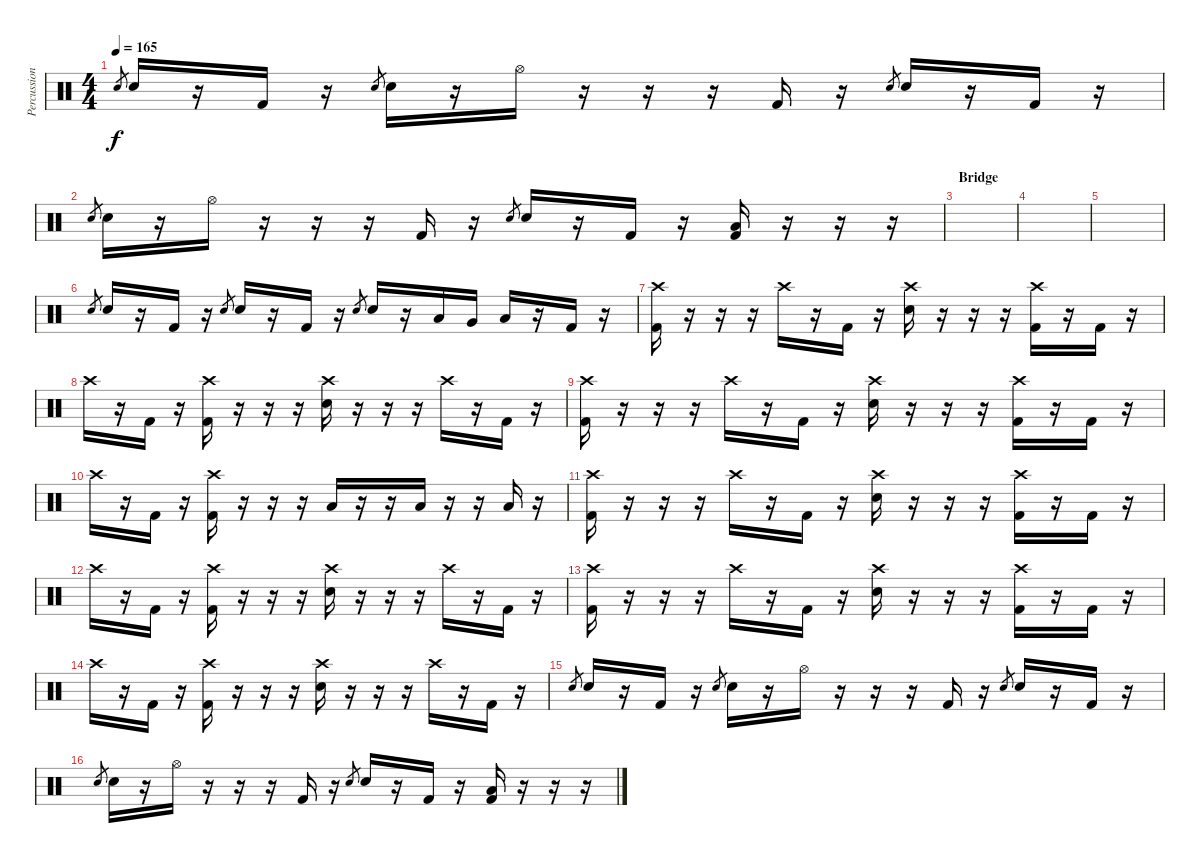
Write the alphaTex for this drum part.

\track ("Percussion" "Percussion") {instrument percussion}
\staff {score}
\articulation defaults
\ts (4 4)
\tempo 165
\clef neutral
\ks c "Snare (hit) 2".8{gr dy f} "Snare (hit) 2".16
r.16 "Kick (hit) 2".16 r.16 "Snare (hit) 2".8{gr} "Snare (hit) 2".16 r.16 "Hi-Hat (open)".16 r.16 r.16 r.16 "Kick (hit) 2".16 r.16 "Snare (hit) 2".8{gr} "Snare (hit) 2".16 r.16 "Kick (hit) 2".16 r.16 |
"Snare (hit) 2".8{gr} "Snare (hit) 2".16 r.16 "Hi-Hat (open)".16 r.16 r.16 r.16 "Kick (hit) 2".16 r.16 "Snare (hit) 2".8{gr} "Snare (hit) 2".16 r.16 "Kick (hit) 2".16 r.16 ("Low Floor Tom (hit)" "Kick (hit) 2").16 r.16 r.16 r.16 |
\section ("" "Bridge")
|
|
|
"Snare (hit) 2".8{gr} "Snare (hit) 2".16 r.16 "Kick (hit) 2".16 r.16 "Snare (hit) 2".8{gr} "Snare (hit) 2".16 r.16 "Kick (hit) 2".16 r.16 "Snare (hit) 2".8{gr} "Snare (hit) 2".16 r.16 "Low Tom (hit)".16 "Very Low Tom (hit)".16 "Low Floor Tom (hit)".16 r.16 "Kick (hit) 2".16 r.16 |
("Crash high (hit)" "Kick (hit) 2").16 r.16 r.16 r.16 "Crash high (hit)".16 r.16 "Kick (hit) 2".16 r.16 ("Crash high (hit)" "Snare (hit) 2").16 r.16 r.16 r.16 ("Crash high (hit)" "Kick (hit) 2").16 r.16 "Kick (hit) 2".16 r.16 |
"Crash high (hit)".16 r.16 "Kick (hit) 2".16 r.16 ("Crash high (hit)" "Kick (hit) 2").16 r.16 r.16 r.16 ("Crash high (hit)" "Snare (hit) 2").16 r.16 r.16 r.16 "Crash high (hit)".16 r.16 "Kick (hit) 2".16 r.16 |
("Crash high (hit)" "Kick (hit) 2").16 r.16 r.16 r.16 "Crash high (hit)".16 r.16 "Kick (hit) 2".16 r.16 ("Crash high (hit)" "Snare (hit) 2").16 r.16 r.16 r.16 ("Crash high (hit)" "Kick (hit) 2").16 r.16 "Kick (hit) 2".16 r.16 |
"Crash high (hit)".16 r.16 "Kick (hit) 2".16 r.16 ("Crash high (hit)" "Kick (hit) 2").16 r.16 r.16 r.16 "Low Floor Tom (hit)".16 r.16 r.16 "Low Floor Tom (hit)".16 r.16 r.16 "Low Floor Tom (hit)".16 r.16 |
("Crash high (hit)" "Kick (hit) 2").16 r.16 r.16 r.16 "Crash high (hit)".16 r.16 "Kick (hit) 2".16 r.16 ("Crash high (hit)" "Snare (hit) 2").16 r.16 r.16 r.16 ("Crash high (hit)" "Kick (hit) 2").16 r.16 "Kick (hit) 2".16 r.16 |
"Crash high (hit)".16 r.16 "Kick (hit) 2".16 r.16 ("Crash high (hit)" "Kick (hit) 2").16 r.16 r.16 r.16 ("Crash high (hit)" "Snare (hit) 2").16 r.16 r.16 r.16 "Crash high (hit)".16 r.16 "Kick (hit) 2".16 r.16 |
("Crash high (hit)" "Kick (hit) 2").16 r.16 r.16 r.16 "Crash high (hit)".16 r.16 "Kick (hit) 2".16 r.16 ("Crash high (hit)" "Snare (hit) 2").16 r.16 r.16 r.16 ("Crash high (hit)" "Kick (hit) 2").16 r.16 "Kick (hit) 2".16 r.16 |
"Crash high (hit)".16 r.16 "Kick (hit) 2".16 r.16 ("Crash high (hit)" "Kick (hit) 2").16 r.16 r.16 r.16 ("Crash high (hit)" "Snare (hit) 2").16 r.16 r.16 r.16 "Crash high (hit)".16 r.16 "Kick (hit) 2".16 r.16 |
"Snare (hit) 2".8{gr} "Snare (hit) 2".16 r.16 "Kick (hit) 2".16 r.16 "Snare (hit) 2".8{gr} "Snare (hit) 2".16 r.16 "Hi-Hat (open)".16 r.16 r.16 r.16 "Kick (hit) 2".16 r.16 "Snare (hit) 2".8{gr} "Snare (hit) 2".16 r.16 "Kick (hit) 2".16 r.16 |
"Snare (hit) 2".8{gr} "Snare (hit) 2".16 r.16 "Hi-Hat (open)".16 r.16 r.16 r.16 "Kick (hit) 2".16 r.16 "Snare (hit) 2".8{gr} "Snare (hit) 2".16 r.16 "Kick (hit) 2".16 r.16 ("Low Floor Tom (hit)" "Kick (hit) 2").16 r.16 r.16 r.16
